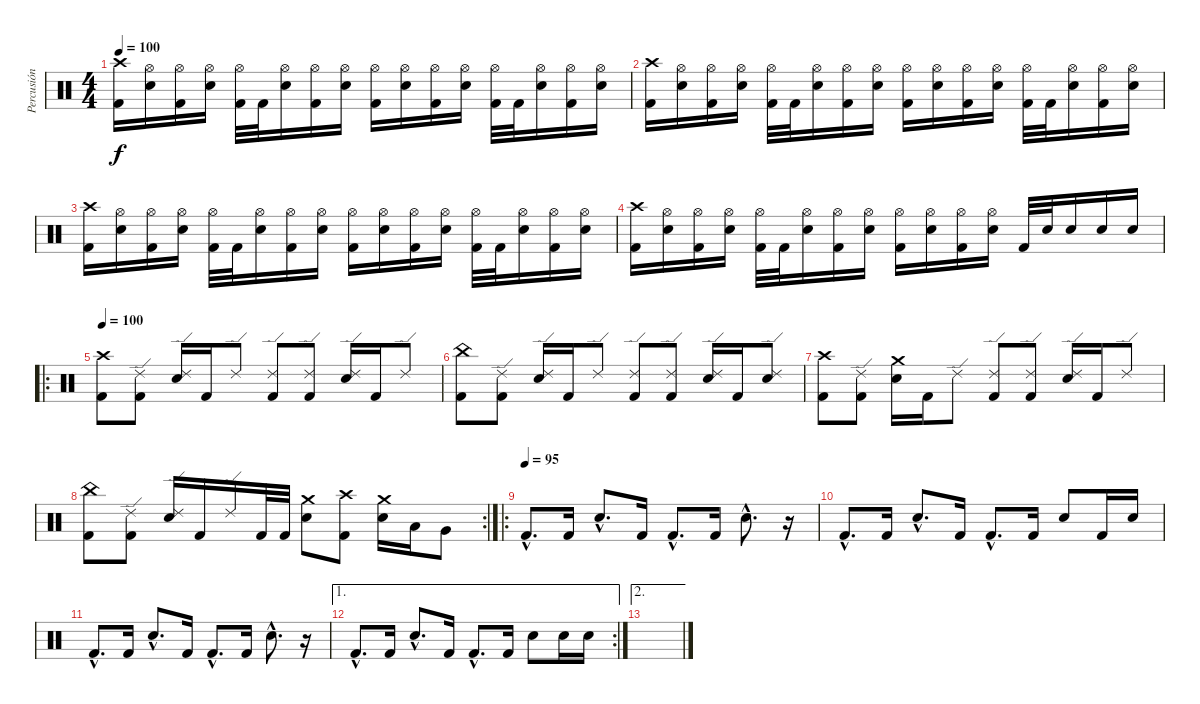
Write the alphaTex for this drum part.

\track ("Percusión" "Percusión") {instrument percussion}
\staff {score}
\articulation defaults
\ts (4 4)
\tempo 100
\clef neutral
\ks c
("Crash high (hit)" "Kick (hit) 2").16{dy f} ("Hi-Hat (open)" "Electric Snare (hit)").16 ("Hi-Hat (open)" "Kick (hit) 2").16 ("Hi-Hat (open)" "Electric Snare (hit)").16 ("Hi-Hat (open)" "Kick (hit) 2").32 "Kick (hit) 2".32 ("Hi-Hat (open)" "Electric Snare (hit)").16 ("Hi-Hat (open)" "Kick (hit) 2").16 ("Hi-Hat (open)" "Electric Snare (hit)").16 ("Hi-Hat (open)" "Kick (hit) 2").16 ("Hi-Hat (open)" "Electric Snare (hit)").16 ("Hi-Hat (open)" "Kick (hit) 2").16 ("Hi-Hat (open)" "Electric Snare (hit)").16 ("Hi-Hat (open)" "Kick (hit) 2").32 "Kick (hit) 2".32 ("Hi-Hat (open)" "Electric Snare (hit)").16 ("Hi-Hat (open)" "Kick (hit) 2").16 ("Hi-Hat (open)" "Electric Snare (hit)").16 |
("Crash high (hit)" "Kick (hit) 2").16 ("Hi-Hat (open)" "Electric Snare (hit)").16 ("Hi-Hat (open)" "Kick (hit) 2").16 ("Hi-Hat (open)" "Electric Snare (hit)").16 ("Hi-Hat (open)" "Kick (hit) 2").32 "Kick (hit) 2".32 ("Hi-Hat (open)" "Electric Snare (hit)").16 ("Hi-Hat (open)" "Kick (hit) 2").16 ("Hi-Hat (open)" "Electric Snare (hit)").16 ("Hi-Hat (open)" "Kick (hit) 2").16 ("Hi-Hat (open)" "Electric Snare (hit)").16 ("Hi-Hat (open)" "Kick (hit) 2").16 ("Hi-Hat (open)" "Electric Snare (hit)").16 ("Hi-Hat (open)" "Kick (hit) 2").32 "Kick (hit) 2".32 ("Hi-Hat (open)" "Electric Snare (hit)").16 ("Hi-Hat (open)" "Kick (hit) 2").16 ("Hi-Hat (open)" "Electric Snare (hit)").16 |
("Crash high (hit)" "Kick (hit) 2").16 ("Hi-Hat (open)" "Electric Snare (hit)").16 ("Hi-Hat (open)" "Kick (hit) 2").16 ("Hi-Hat (open)" "Electric Snare (hit)").16 ("Hi-Hat (open)" "Kick (hit) 2").32 "Kick (hit) 2".32 ("Hi-Hat (open)" "Electric Snare (hit)").16 ("Hi-Hat (open)" "Kick (hit) 2").16 ("Hi-Hat (open)" "Electric Snare (hit)").16 ("Hi-Hat (open)" "Kick (hit) 2").16 ("Hi-Hat (open)" "Electric Snare (hit)").16 ("Hi-Hat (open)" "Kick (hit) 2").16 ("Hi-Hat (open)" "Electric Snare (hit)").16 ("Hi-Hat (open)" "Kick (hit) 2").32 "Kick (hit) 2".32 ("Hi-Hat (open)" "Electric Snare (hit)").16 ("Hi-Hat (open)" "Kick (hit) 2").16 ("Hi-Hat (open)" "Electric Snare (hit)").16 |
("Crash high (hit)" "Kick (hit) 2").16 ("Hi-Hat (open)" "Electric Snare (hit)").16 ("Hi-Hat (open)" "Kick (hit) 2").16 ("Hi-Hat (open)" "Electric Snare (hit)").16 ("Hi-Hat (open)" "Kick (hit) 2").32 "Kick (hit) 2".32 ("Hi-Hat (open)" "Electric Snare (hit)").16 ("Hi-Hat (open)" "Kick (hit) 2").16 ("Hi-Hat (open)" "Electric Snare (hit)").16 ("Hi-Hat (open)" "Kick (hit) 2").16 ("Hi-Hat (open)" "Electric Snare (hit)").16 ("Hi-Hat (open)" "Kick (hit) 2").16 ("Hi-Hat (open)" "Electric Snare (hit)").16 "Kick (hit) 2".32 "Electric Snare (hit)".32 "Electric Snare (hit)".16 "Electric Snare (hit)".16 "Electric Snare (hit)".16 |
\ro
\tempo 100
("Crash high (hit)" "Kick (hit) 2").8 ("Ride (edge) 2" "Kick (hit) 2").8 ("Ride (edge) 2" "Electric Snare (hit)").16 "Kick (hit) 2".16 "Ride (edge) 2".8 ("Ride (edge) 2" "Kick (hit) 2").8 ("Ride (edge) 2" "Kick (hit) 2").8 ("Ride (edge) 2" "Electric Snare (hit)").16 "Kick (hit) 2".16 "Ride (edge) 2".8 |
("China (hit)" "Kick (hit) 2").8 ("Ride (edge) 2" "Kick (hit) 2").8 ("Ride (edge) 2" "Electric Snare (hit)").16 "Kick (hit) 2".16 "Ride (edge) 2".8 ("Ride (edge) 2" "Kick (hit) 2").8 ("Ride (edge) 2" "Kick (hit) 2").8 ("Ride (edge) 2" "Electric Snare (hit)").16 "Kick (hit) 2".16 ("Ride (edge) 2" "Electric Snare (hit)").8 |
("Crash high (hit)" "Kick (hit) 2").8 ("Ride (edge) 2" "Kick (hit) 2").8 ("Crash medium (hit)" "Electric Snare (hit)").16 "Kick (hit) 2".16 "Ride (edge) 2".8 ("Ride (edge) 2" "Kick (hit) 2").8 ("Ride (edge) 2" "Kick (hit) 2").8 ("Ride (edge) 2" "Electric Snare (hit)").16 "Kick (hit) 2".16 "Ride (edge) 2".8 |
\rc 2
("China (hit)" "Kick (hit) 2").8 ("Ride (edge) 2" "Kick (hit) 2").8 ("Ride (edge) 2" "Electric Snare (hit)").16 "Kick (hit) 2".16 "Ride (edge) 2".16 "Kick (hit) 2".32 "Kick (hit) 2".32 ("Crash medium (hit)" "Electric Snare (hit)").8 ("Crash high (hit)" "Kick (hit) 2").8 ("Crash medium (hit)" "Electric Snare (hit)").16 "Low Tom (hit)".16 "Very Low Tom (hit)".8 |
\ro
\tempo (95)
"Kick (hit) 2"{hac}.8{d} "Kick (hit) 2".16 "Electric Snare (hit)"{hac}.8{d} "Kick (hit) 2".16 "Kick (hit) 2"{hac}.8{d} "Kick (hit) 2".16 "Electric Snare (hit)"{hac}.8{d} r.16 |
"Kick (hit) 2"{hac}.8{d} "Kick (hit) 2".16 "Electric Snare (hit)"{hac}.8{d} "Kick (hit) 2".16 "Kick (hit) 2"{hac}.8{d} "Kick (hit) 2".16 "Electric Snare (hit)".8 "Kick (hit) 2".16 "Electric Snare (hit)".16 |
"Kick (hit) 2"{hac}.8{d} "Kick (hit) 2".16 "Electric Snare (hit)"{hac}.8{d} "Kick (hit) 2".16 "Kick (hit) 2"{hac}.8{d} "Kick (hit) 2".16 "Electric Snare (hit)"{hac}.8{d} r.16 |
\ae 1
\rc 2 "Kick (hit) 2"{hac}.8{d} "Kick (hit) 2".16 "Electric Snare (hit)"{hac}.8{d} "Kick (hit) 2".16 "Kick (hit) 2"{hac}.8{d} "Kick (hit) 2".16 "Electric Snare (hit)".8 "Electric Snare (hit)".16 "Electric Snare (hit)".16
|
\ae 2
